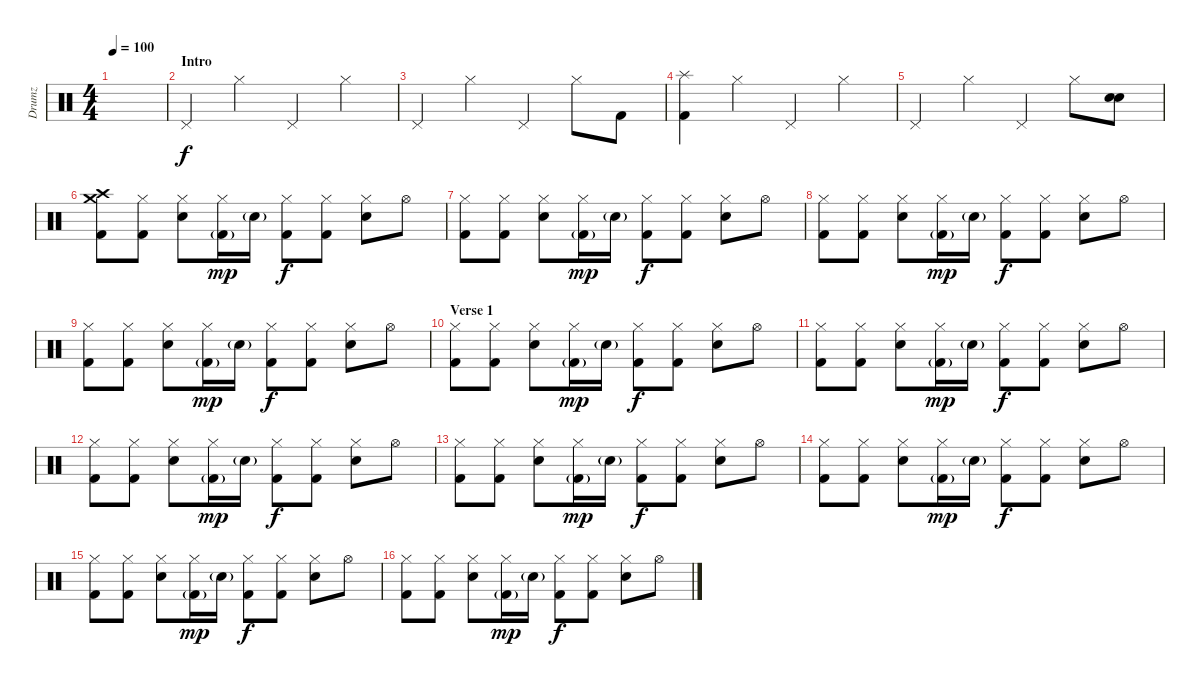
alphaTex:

\track ("Drumz" "Drumz") {instrument percussion}
\staff {score}
\articulation defaults
\ts (4 4)
\tempo 100
\clef neutral
\ks c
|
\section ("" "Intro")
"Pedal Hi-Hat (hit)".4 "Hi-Hat (closed)".4 "Pedal Hi-Hat (hit)".4 "Hi-Hat (closed)".4 |
"Pedal Hi-Hat (hit)".4 "Hi-Hat (closed)".4 "Pedal Hi-Hat (hit)".4 "Hi-Hat (closed)".8 "Kick (hit) 2".8 |
("Splash (hit)" "Kick (hit) 2").4 "Hi-Hat (closed)".4 "Pedal Hi-Hat (hit)".4 "Hi-Hat (closed)".4 |
"Pedal Hi-Hat (hit)".4 "Hi-Hat (closed)".4 "Pedal Hi-Hat (hit)".4 "Hi-Hat (closed)".8 ("Snare (hit) 2" "Electric Snare (hit)").8 |
("Crash medium (hit)" "Crash high (hit)" "Kick (hit) 2").8 ("Hi-Hat (closed)" "Kick (hit) 2").8 ("Hi-Hat (closed)" "Electric Snare (hit)").8 ("Hi-Hat (closed)" "Kick (hit) 2"{g}).16{dy mp} "Electric Snare (hit)"{g}.16 ("Hi-Hat (closed)" "Kick (hit) 2").8{dy f} ("Hi-Hat (closed)" "Kick (hit) 2").8 ("Hi-Hat (closed)" "Electric Snare (hit)").8 "Hi-Hat (open)".8 |
("Hi-Hat (closed)" "Kick (hit) 2").8 ("Hi-Hat (closed)" "Kick (hit) 2").8 ("Hi-Hat (closed)" "Electric Snare (hit)").8 ("Hi-Hat (closed)" "Kick (hit) 2"{g}).16{dy mp} "Electric Snare (hit)"{g}.16 ("Hi-Hat (closed)" "Kick (hit) 2").8{dy f} ("Hi-Hat (closed)" "Kick (hit) 2").8 ("Hi-Hat (closed)" "Electric Snare (hit)").8 "Hi-Hat (open)".8 |
("Hi-Hat (closed)" "Kick (hit) 2").8 ("Hi-Hat (closed)" "Kick (hit) 2").8 ("Hi-Hat (closed)" "Electric Snare (hit)").8 ("Hi-Hat (closed)" "Kick (hit) 2"{g}).16{dy mp} "Electric Snare (hit)"{g}.16 ("Hi-Hat (closed)" "Kick (hit) 2").8{dy f} ("Hi-Hat (closed)" "Kick (hit) 2").8 ("Hi-Hat (closed)" "Electric Snare (hit)").8 "Hi-Hat (open)".8 |
("Hi-Hat (closed)" "Kick (hit) 2").8 ("Hi-Hat (closed)" "Kick (hit) 2").8 ("Hi-Hat (closed)" "Electric Snare (hit)").8 ("Hi-Hat (closed)" "Kick (hit) 2"{g}).16{dy mp} "Electric Snare (hit)"{g}.16 ("Hi-Hat (closed)" "Kick (hit) 2").8{dy f} ("Hi-Hat (closed)" "Kick (hit) 2").8 ("Hi-Hat (closed)" "Electric Snare (hit)").8 "Hi-Hat (open)".8 |
\section ("" "Verse 1")
("Hi-Hat (closed)" "Kick (hit) 2").8 ("Hi-Hat (closed)" "Kick (hit) 2").8 ("Hi-Hat (closed)" "Electric Snare (hit)").8 ("Hi-Hat (closed)" "Kick (hit) 2"{g}).16{dy mp} "Electric Snare (hit)"{g}.16 ("Hi-Hat (closed)" "Kick (hit) 2").8{dy f} ("Hi-Hat (closed)" "Kick (hit) 2").8 ("Hi-Hat (closed)" "Electric Snare (hit)").8 "Hi-Hat (open)".8 |
("Hi-Hat (closed)" "Kick (hit) 2").8 ("Hi-Hat (closed)" "Kick (hit) 2").8 ("Hi-Hat (closed)" "Electric Snare (hit)").8 ("Hi-Hat (closed)" "Kick (hit) 2"{g}).16{dy mp} "Electric Snare (hit)"{g}.16 ("Hi-Hat (closed)" "Kick (hit) 2").8{dy f} ("Hi-Hat (closed)" "Kick (hit) 2").8 ("Hi-Hat (closed)" "Electric Snare (hit)").8 "Hi-Hat (open)".8 |
("Hi-Hat (closed)" "Kick (hit) 2").8 ("Hi-Hat (closed)" "Kick (hit) 2").8 ("Hi-Hat (closed)" "Electric Snare (hit)").8 ("Hi-Hat (closed)" "Kick (hit) 2"{g}).16{dy mp} "Electric Snare (hit)"{g}.16 ("Hi-Hat (closed)" "Kick (hit) 2").8{dy f} ("Hi-Hat (closed)" "Kick (hit) 2").8 ("Hi-Hat (closed)" "Electric Snare (hit)").8 "Hi-Hat (open)".8 |
("Hi-Hat (closed)" "Kick (hit) 2").8 ("Hi-Hat (closed)" "Kick (hit) 2").8 ("Hi-Hat (closed)" "Electric Snare (hit)").8 ("Hi-Hat (closed)" "Kick (hit) 2"{g}).16{dy mp} "Electric Snare (hit)"{g}.16 ("Hi-Hat (closed)" "Kick (hit) 2").8{dy f} ("Hi-Hat (closed)" "Kick (hit) 2").8 ("Hi-Hat (closed)" "Electric Snare (hit)").8 "Hi-Hat (open)".8 |
("Hi-Hat (closed)" "Kick (hit) 2").8 ("Hi-Hat (closed)" "Kick (hit) 2").8 ("Hi-Hat (closed)" "Electric Snare (hit)").8 ("Hi-Hat (closed)" "Kick (hit) 2"{g}).16{dy mp} "Electric Snare (hit)"{g}.16 ("Hi-Hat (closed)" "Kick (hit) 2").8{dy f} ("Hi-Hat (closed)" "Kick (hit) 2").8 ("Hi-Hat (closed)" "Electric Snare (hit)").8 "Hi-Hat (open)".8 |
("Hi-Hat (closed)" "Kick (hit) 2").8 ("Hi-Hat (closed)" "Kick (hit) 2").8 ("Hi-Hat (closed)" "Electric Snare (hit)").8 ("Hi-Hat (closed)" "Kick (hit) 2"{g}).16{dy mp} "Electric Snare (hit)"{g}.16 ("Hi-Hat (closed)" "Kick (hit) 2").8{dy f} ("Hi-Hat (closed)" "Kick (hit) 2").8 ("Hi-Hat (closed)" "Electric Snare (hit)").8 "Hi-Hat (open)".8 |
("Hi-Hat (closed)" "Kick (hit) 2").8 ("Hi-Hat (closed)" "Kick (hit) 2").8 ("Hi-Hat (closed)" "Electric Snare (hit)").8 ("Hi-Hat (closed)" "Kick (hit) 2"{g}).16{dy mp} "Electric Snare (hit)"{g}.16 ("Hi-Hat (closed)" "Kick (hit) 2").8{dy f} ("Hi-Hat (closed)" "Kick (hit) 2").8 ("Hi-Hat (closed)" "Electric Snare (hit)").8 "Hi-Hat (open)".8
